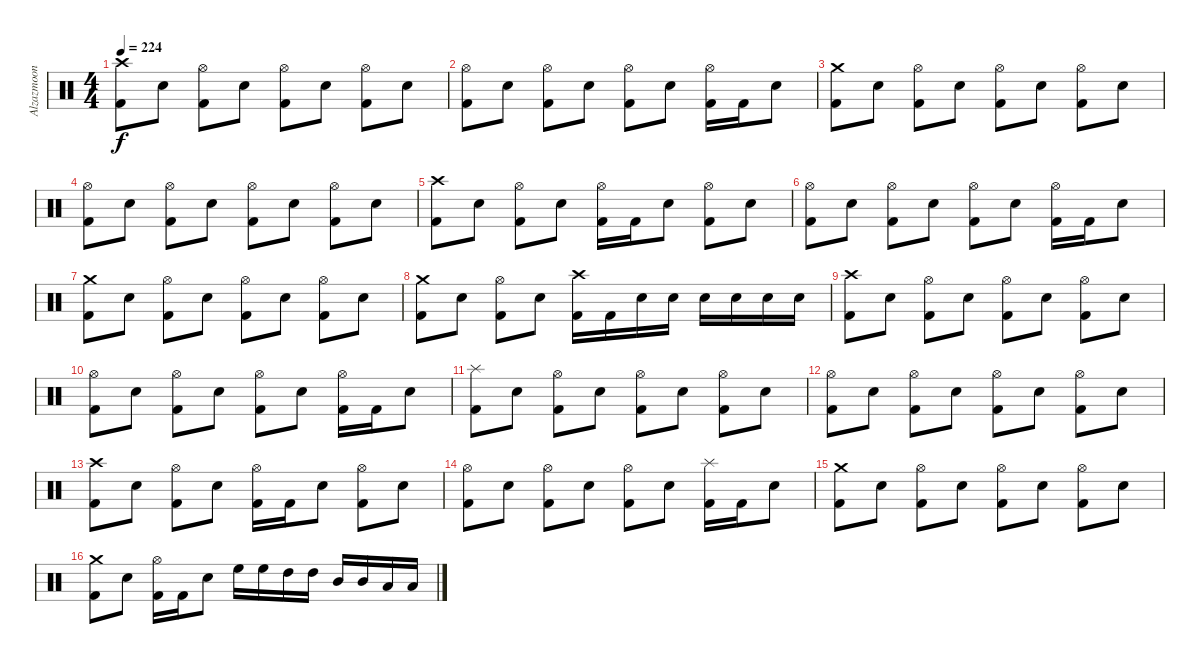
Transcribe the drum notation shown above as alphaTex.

\track ("Alzazmoon" "Alzazmoon") {instrument percussion}
\staff {score}
\articulation defaults
\ts (4 4)
\tempo 224
\clef neutral
\ks c
("Crash high (hit)" "Kick (hit) 2").8{dy f} "Snare (hit) 2".8 ("Hi-Hat (open)" "Kick (hit) 2").8 "Snare (hit) 2".8 ("Hi-Hat (open)" "Kick (hit) 2").8 "Snare (hit) 2".8 ("Hi-Hat (open)" "Kick (hit) 2").8 "Snare (hit) 2".8 |
("Hi-Hat (open)" "Kick (hit) 2").8 "Snare (hit) 2".8 ("Hi-Hat (open)" "Kick (hit) 2").8 "Snare (hit) 2".8 ("Hi-Hat (open)" "Kick (hit) 2").8 "Snare (hit) 2".8 ("Hi-Hat (open)" "Kick (hit) 2").16 "Kick (hit) 2".16 "Snare (hit) 2".8 |
("Crash medium (hit)" "Kick (hit) 2").8 "Snare (hit) 2".8 ("Hi-Hat (open)" "Kick (hit) 2").8 "Snare (hit) 2".8 ("Hi-Hat (open)" "Kick (hit) 2").8 "Snare (hit) 2".8 ("Hi-Hat (open)" "Kick (hit) 2").8 "Snare (hit) 2".8 |
("Hi-Hat (open)" "Kick (hit) 2").8 "Snare (hit) 2".8 ("Hi-Hat (open)" "Kick (hit) 2").8 "Snare (hit) 2".8 ("Hi-Hat (open)" "Kick (hit) 2").8 "Snare (hit) 2".8 ("Hi-Hat (open)" "Kick (hit) 2").8 "Snare (hit) 2".8 |
("Crash high (hit)" "Kick (hit) 2").8 "Snare (hit) 2".8 ("Hi-Hat (open)" "Kick (hit) 2").8 "Snare (hit) 2".8 ("Hi-Hat (open)" "Kick (hit) 2").16 "Kick (hit) 2".16 "Snare (hit) 2".8 ("Hi-Hat (open)" "Kick (hit) 2").8 "Snare (hit) 2".8 |
("Hi-Hat (open)" "Kick (hit) 2").8 "Snare (hit) 2".8 ("Hi-Hat (open)" "Kick (hit) 2").8 "Snare (hit) 2".8 ("Hi-Hat (open)" "Kick (hit) 2").8 "Snare (hit) 2".8 ("Hi-Hat (open)" "Kick (hit) 2").16 "Kick (hit) 2".16 "Snare (hit) 2".8 |
("Crash medium (hit)" "Kick (hit) 2").8 "Snare (hit) 2".8 ("Hi-Hat (open)" "Kick (hit) 2").8 "Snare (hit) 2".8 ("Hi-Hat (open)" "Kick (hit) 2").8 "Snare (hit) 2".8 ("Hi-Hat (open)" "Kick (hit) 2").8 "Snare (hit) 2".8 |
("Crash medium (hit)" "Kick (hit) 2").8 "Snare (hit) 2".8 ("Hi-Hat (open)" "Kick (hit) 2").8 "Snare (hit) 2".8 ("Crash high (hit)" "Kick (hit) 2").16 "Kick (hit) 2".16 "Snare (hit) 2".16 "Snare (hit) 2".16 "Snare (hit) 2".16 "Snare (hit) 2".16 "Snare (hit) 2".16 "Snare (hit) 2".16 |
("Crash high (hit)" "Kick (hit) 2").8 "Snare (hit) 2".8 ("Hi-Hat (open)" "Kick (hit) 2").8 "Snare (hit) 2".8 ("Hi-Hat (open)" "Kick (hit) 2").8 "Snare (hit) 2".8 ("Hi-Hat (open)" "Kick (hit) 2").8 "Snare (hit) 2".8 |
("Hi-Hat (open)" "Kick (hit) 2").8 "Snare (hit) 2".8 ("Hi-Hat (open)" "Kick (hit) 2").8 "Snare (hit) 2".8 ("Hi-Hat (open)" "Kick (hit) 2").8 "Snare (hit) 2".8 ("Hi-Hat (open)" "Kick (hit) 2").16 "Kick (hit) 2".16 "Snare (hit) 2".8 |
("Splash (hit)" "Kick (hit) 2").8 "Snare (hit) 2".8 ("Hi-Hat (open)" "Kick (hit) 2").8 "Snare (hit) 2".8 ("Hi-Hat (open)" "Kick (hit) 2").8 "Snare (hit) 2".8 ("Hi-Hat (open)" "Kick (hit) 2").8 "Snare (hit) 2".8 |
("Hi-Hat (open)" "Kick (hit) 2").8 "Snare (hit) 2".8 ("Hi-Hat (open)" "Kick (hit) 2").8 "Snare (hit) 2".8 ("Hi-Hat (open)" "Kick (hit) 2").8 "Snare (hit) 2".8 ("Hi-Hat (open)" "Kick (hit) 2").8 "Snare (hit) 2".8 |
("Crash high (hit)" "Kick (hit) 2").8 "Snare (hit) 2".8 ("Hi-Hat (open)" "Kick (hit) 2").8 "Snare (hit) 2".8 ("Hi-Hat (open)" "Kick (hit) 2").16 "Kick (hit) 2".16 "Snare (hit) 2".8 ("Hi-Hat (open)" "Kick (hit) 2").8 "Snare (hit) 2".8 |
("Hi-Hat (open)" "Kick (hit) 2").8 "Snare (hit) 2".8 ("Hi-Hat (open)" "Kick (hit) 2").8 "Snare (hit) 2".8 ("Hi-Hat (open)" "Kick (hit) 2").8 "Snare (hit) 2".8 ("Splash (hit)" "Kick (hit) 2").16 "Kick (hit) 2".16 "Snare (hit) 2".8 |
("Crash medium (hit)" "Kick (hit) 2").8 "Snare (hit) 2".8 ("Hi-Hat (open)" "Kick (hit) 2").8 "Snare (hit) 2".8 ("Hi-Hat (open)" "Kick (hit) 2").8 "Snare (hit) 2".8 ("Hi-Hat (open)" "Kick (hit) 2").8 "Snare (hit) 2".8 |
("Crash medium (hit)" "Kick (hit) 2").8 "Snare (hit) 2".8 ("Hi-Hat (open)" "Kick (hit) 2").16 "Kick (hit) 2".16 "Snare (hit) 2".8 "High Floor Tom (hit)".16 "High Floor Tom (hit)".16 "High Tom (hit)".16 "High Tom (hit)".16 "Mid Tom (hit)".16 "Mid Tom (hit)".16 "Low Tom (hit)".16 "Low Tom (hit)".16
